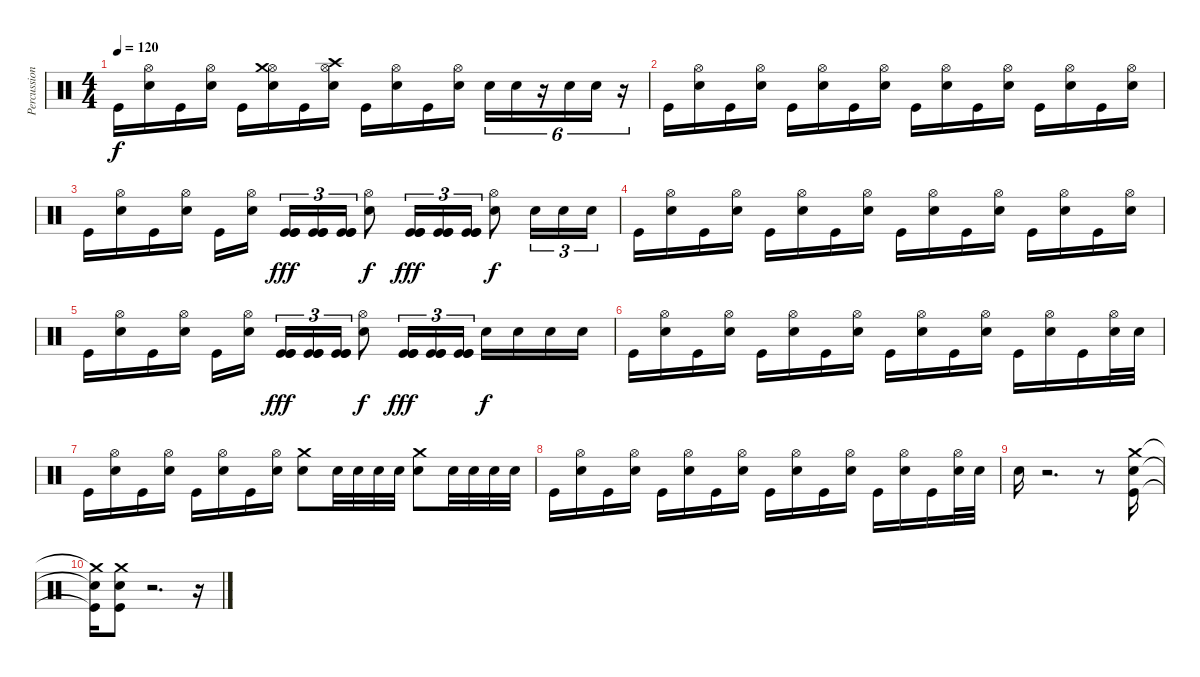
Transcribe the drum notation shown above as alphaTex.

\track ("Percussioni" "Percussion") {instrument percussion}
\staff {score}
\articulation defaults
\ts (4 4)
\tempo 120
\clef neutral
\ks c "Kick (hit)".16{dy f}
("Hi-Hat (open)" "Electric Snare (hit)").16 "Kick (hit)".16 ("Hi-Hat (open)" "Electric Snare (hit)").16 "Kick (hit)".16 ("Hi-Hat (open)" "Crash medium (hit)" "Electric Snare (hit)").16 "Kick (hit)".16 ("Hi-Hat (open)" "Crash high (hit)" "Electric Snare (hit)").16 "Kick (hit)".16 ("Hi-Hat (open)" "Electric Snare (hit)").16 "Kick (hit)".16 ("Hi-Hat (open)" "Electric Snare (hit)").16 "Electric Snare (hit)".16{tu (6 4)} "Electric Snare (hit)".16{tu (6 4)} r.16{tu (6 4)} "Snare (hit) 2".16{tu (6 4)} "Snare (hit) 2".16{tu (6 4)} r.16{tu (6 4)} |
"Kick (hit)".16 ("Hi-Hat (open)" "Electric Snare (hit)").16 "Kick (hit)".16 ("Hi-Hat (open)" "Electric Snare (hit)").16 "Kick (hit)".16 ("Hi-Hat (open)" "Electric Snare (hit)").16 "Kick (hit)".16 ("Hi-Hat (open)" "Electric Snare (hit)").16 "Kick (hit)".16 ("Hi-Hat (open)" "Electric Snare (hit)").16 "Kick (hit)".16 ("Hi-Hat (open)" "Electric Snare (hit)").16 "Kick (hit)".16 ("Hi-Hat (open)" "Electric Snare (hit)").16 "Kick (hit)".16 ("Hi-Hat (open)" "Electric Snare (hit)").16 |
"Kick (hit)".16 ("Hi-Hat (open)" "Electric Snare (hit)").16 "Kick (hit)".16 ("Hi-Hat (open)" "Electric Snare (hit)").16 "Kick (hit)".16 ("Hi-Hat (open)" "Electric Snare (hit)").16 ("Kick (hit)" "Kick (hit)" "Kick (hit)").16{tu (3 2) dy fff} ("Kick (hit)" "Kick (hit)" "Kick (hit)").16{tu (3 2)} ("Kick (hit)" "Kick (hit)" "Kick (hit)").16{tu (3 2)} ("Hi-Hat (open)" "Electric Snare (hit)").8{dy f} ("Kick (hit)" "Kick (hit)" "Kick (hit)").16{tu (3 2) dy fff} ("Kick (hit)" "Kick (hit)" "Kick (hit)").16{tu (3 2)} ("Kick (hit)" "Kick (hit)" "Kick (hit)").16{tu (3 2)} ("Hi-Hat (open)" "Electric Snare (hit)").8{dy f} "Electric Snare (hit)".16{tu (3 2)} "Electric Snare (hit)".16{tu (3 2)} "Electric Snare (hit)".16{tu (3 2)} |
"Kick (hit)".16 ("Hi-Hat (open)" "Electric Snare (hit)").16 "Kick (hit)".16 ("Hi-Hat (open)" "Electric Snare (hit)").16 "Kick (hit)".16 ("Hi-Hat (open)" "Electric Snare (hit)").16 "Kick (hit)".16 ("Hi-Hat (open)" "Electric Snare (hit)").16 "Kick (hit)".16 ("Hi-Hat (open)" "Electric Snare (hit)").16 "Kick (hit)".16 ("Hi-Hat (open)" "Electric Snare (hit)").16 "Kick (hit)".16 ("Hi-Hat (open)" "Electric Snare (hit)").16 "Kick (hit)".16 ("Hi-Hat (open)" "Electric Snare (hit)").16 |
"Kick (hit)".16 ("Hi-Hat (open)" "Electric Snare (hit)").16 "Kick (hit)".16 ("Hi-Hat (open)" "Electric Snare (hit)").16 "Kick (hit)".16 ("Hi-Hat (open)" "Electric Snare (hit)").16 ("Kick (hit)" "Kick (hit)" "Kick (hit)").16{tu (3 2) dy fff} ("Kick (hit)" "Kick (hit)" "Kick (hit)").16{tu (3 2)} ("Kick (hit)" "Kick (hit)" "Kick (hit)").16{tu (3 2)} ("Hi-Hat (open)" "Electric Snare (hit)").8{dy f} ("Kick (hit)" "Kick (hit)" "Kick (hit)").16{tu (3 2) dy fff} ("Kick (hit)" "Kick (hit)" "Kick (hit)").16{tu (3 2)} ("Kick (hit)" "Kick (hit)" "Kick (hit)").16{tu (3 2)} "Electric Snare (hit)".16{dy f} "Electric Snare (hit)".16 "Electric Snare (hit)".16 "Electric Snare (hit)".16 |
"Kick (hit)".16 ("Hi-Hat (open)" "Electric Snare (hit)").16 "Kick (hit)".16 ("Hi-Hat (open)" "Electric Snare (hit)").16 "Kick (hit)".16 ("Hi-Hat (open)" "Electric Snare (hit)").16 "Kick (hit)".16 ("Hi-Hat (open)" "Electric Snare (hit)").16 "Kick (hit)".16 ("Hi-Hat (open)" "Electric Snare (hit)").16 "Kick (hit)".16 ("Hi-Hat (open)" "Electric Snare (hit)").16 "Kick (hit)".16 ("Hi-Hat (open)" "Electric Snare (hit)").16 "Kick (hit)".16 ("Hi-Hat (open)" "Electric Snare (hit)").32 "Electric Snare (hit)".32 |
"Kick (hit)".16 ("Hi-Hat (open)" "Electric Snare (hit)").16 "Kick (hit)".16 ("Hi-Hat (open)" "Electric Snare (hit)").16 "Kick (hit)".16 ("Hi-Hat (open)" "Electric Snare (hit)").16 "Kick (hit)".16 ("Hi-Hat (open)" "Electric Snare (hit)").16 ("Crash medium (hit)" "Electric Snare (hit)").8 "Electric Snare (hit)".32 "Electric Snare (hit)".32 "Electric Snare (hit)".32 "Electric Snare (hit)".32 ("Crash medium (hit)" "Electric Snare (hit)").8 "Electric Snare (hit)".32 "Electric Snare (hit)".32 "Electric Snare (hit)".32 "Electric Snare (hit)".32 |
"Kick (hit)".16 ("Hi-Hat (open)" "Electric Snare (hit)").16 "Kick (hit)".16 ("Hi-Hat (open)" "Electric Snare (hit)").16 "Kick (hit)".16 ("Hi-Hat (open)" "Electric Snare (hit)").16 "Kick (hit)".16 ("Hi-Hat (open)" "Electric Snare (hit)").16 "Kick (hit)".16 ("Hi-Hat (open)" "Electric Snare (hit)").16 "Kick (hit)".16 ("Hi-Hat (open)" "Electric Snare (hit)").16 "Kick (hit)".16 ("Hi-Hat (open)" "Electric Snare (hit)").16 "Kick (hit)".16 ("Hi-Hat (open)" "Electric Snare (hit)").32 "Electric Snare (hit)".32 |
"Electric Snare (hit)".16 r.2{d} r.8 ("Crash medium (hit)" "Electric Snare (hit)" "Kick (hit)").16 |
("Crash medium (hit)"{t} "Electric Snare (hit)"{t} "Kick (hit)"{t}).16 ("Crash medium (hit)" "Electric Snare (hit)" "Kick (hit)").8 r.2{d} r.16
